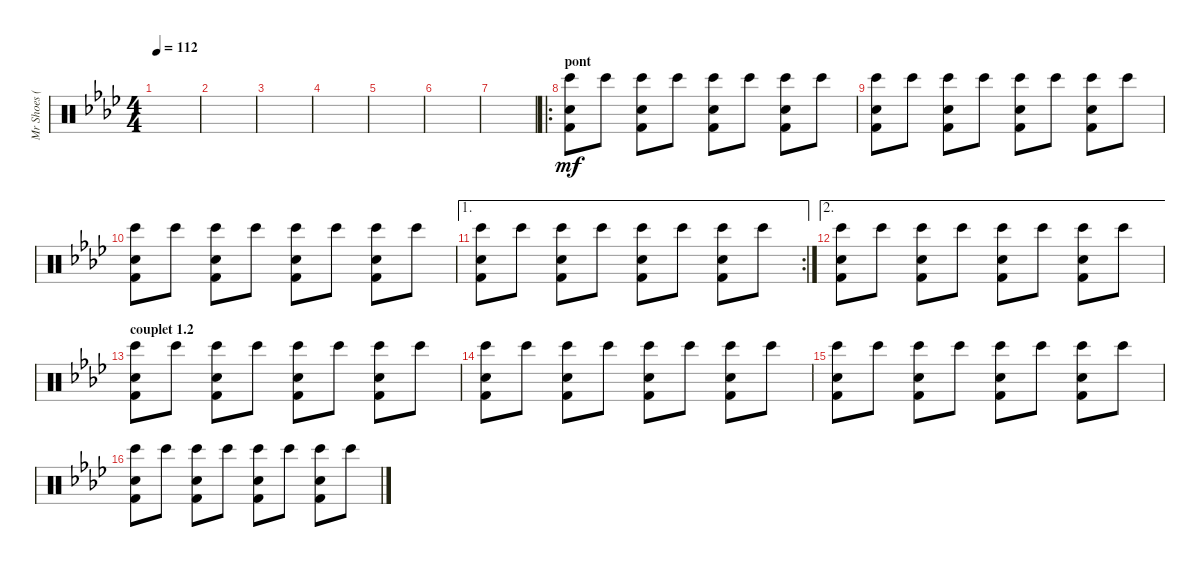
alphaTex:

\track ("Mr Shoes (batterie)" "Mr Shoes (") {instrument percussion}
\staff {score}
\articulation defaults
\ts (4 4)
\tempo 112
\clef neutral
\ks ab
|
|
|
|
|
|
|
\ro
\section ("" "pont")
("Snare (hit) 2" "Kick (hit) 2" "Bongo High (hit)").8{dy mf volume 11} "Bongo High (hit)".8 ("Snare (hit) 2" "Kick (hit) 2" "Bongo High (hit)").8 "Bongo High (hit)".8 ("Snare (hit) 2" "Kick (hit) 2" "Bongo High (hit)").8 "Bongo High (hit)".8 ("Snare (hit) 2" "Kick (hit) 2" "Bongo High (hit)").8 "Bongo High (hit)".8 |
("Snare (hit) 2" "Kick (hit) 2" "Bongo High (hit)").8 "Bongo High (hit)".8 ("Snare (hit) 2" "Kick (hit) 2" "Bongo High (hit)").8 "Bongo High (hit)".8 ("Snare (hit) 2" "Kick (hit) 2" "Bongo High (hit)").8 "Bongo High (hit)".8 ("Snare (hit) 2" "Kick (hit) 2" "Bongo High (hit)").8 "Bongo High (hit)".8 |
("Snare (hit) 2" "Kick (hit) 2" "Bongo High (hit)").8 "Bongo High (hit)".8 ("Snare (hit) 2" "Kick (hit) 2" "Bongo High (hit)").8 "Bongo High (hit)".8 ("Snare (hit) 2" "Kick (hit) 2" "Bongo High (hit)").8 "Bongo High (hit)".8 ("Snare (hit) 2" "Kick (hit) 2" "Bongo High (hit)").8 "Bongo High (hit)".8 |
\ae 1
\rc 2
("Snare (hit) 2" "Kick (hit) 2" "Bongo High (hit)").8 "Bongo High (hit)".8 ("Snare (hit) 2" "Kick (hit) 2" "Bongo High (hit)").8 "Bongo High (hit)".8 ("Snare (hit) 2" "Kick (hit) 2" "Bongo High (hit)").8 "Bongo High (hit)".8 ("Snare (hit) 2" "Kick (hit) 2" "Bongo High (hit)").8 "Bongo High (hit)".8 |
\ae 2
("Snare (hit) 2" "Kick (hit) 2" "Bongo High (hit)").8 "Bongo High (hit)".8 ("Snare (hit) 2" "Kick (hit) 2" "Bongo High (hit)").8 "Bongo High (hit)".8 ("Snare (hit) 2" "Kick (hit) 2" "Bongo High (hit)").8 "Bongo High (hit)".8 ("Snare (hit) 2" "Kick (hit) 2" "Bongo High (hit)").8 "Bongo High (hit)".8 |
\section ("" "couplet 1.2")
("Snare (hit) 2" "Kick (hit) 2" "Bongo High (hit)").8 "Bongo High (hit)".8 ("Snare (hit) 2" "Kick (hit) 2" "Bongo High (hit)").8 "Bongo High (hit)".8 ("Snare (hit) 2" "Kick (hit) 2" "Bongo High (hit)").8 "Bongo High (hit)".8 ("Snare (hit) 2" "Kick (hit) 2" "Bongo High (hit)").8 "Bongo High (hit)".8 |
("Snare (hit) 2" "Kick (hit) 2" "Bongo High (hit)").8 "Bongo High (hit)".8 ("Snare (hit) 2" "Kick (hit) 2" "Bongo High (hit)").8 "Bongo High (hit)".8 ("Snare (hit) 2" "Kick (hit) 2" "Bongo High (hit)").8 "Bongo High (hit)".8 ("Snare (hit) 2" "Kick (hit) 2" "Bongo High (hit)").8 "Bongo High (hit)".8 |
("Snare (hit) 2" "Kick (hit) 2" "Bongo High (hit)").8 "Bongo High (hit)".8 ("Snare (hit) 2" "Kick (hit) 2" "Bongo High (hit)").8 "Bongo High (hit)".8 ("Snare (hit) 2" "Kick (hit) 2" "Bongo High (hit)").8 "Bongo High (hit)".8 ("Snare (hit) 2" "Kick (hit) 2" "Bongo High (hit)").8 "Bongo High (hit)".8 |
("Snare (hit) 2" "Kick (hit) 2" "Bongo High (hit)").8 "Bongo High (hit)".8 ("Snare (hit) 2" "Kick (hit) 2" "Bongo High (hit)").8 "Bongo High (hit)".8 ("Snare (hit) 2" "Kick (hit) 2" "Bongo High (hit)").8 "Bongo High (hit)".8 ("Snare (hit) 2" "Kick (hit) 2" "Bongo High (hit)").8 "Bongo High (hit)".8
